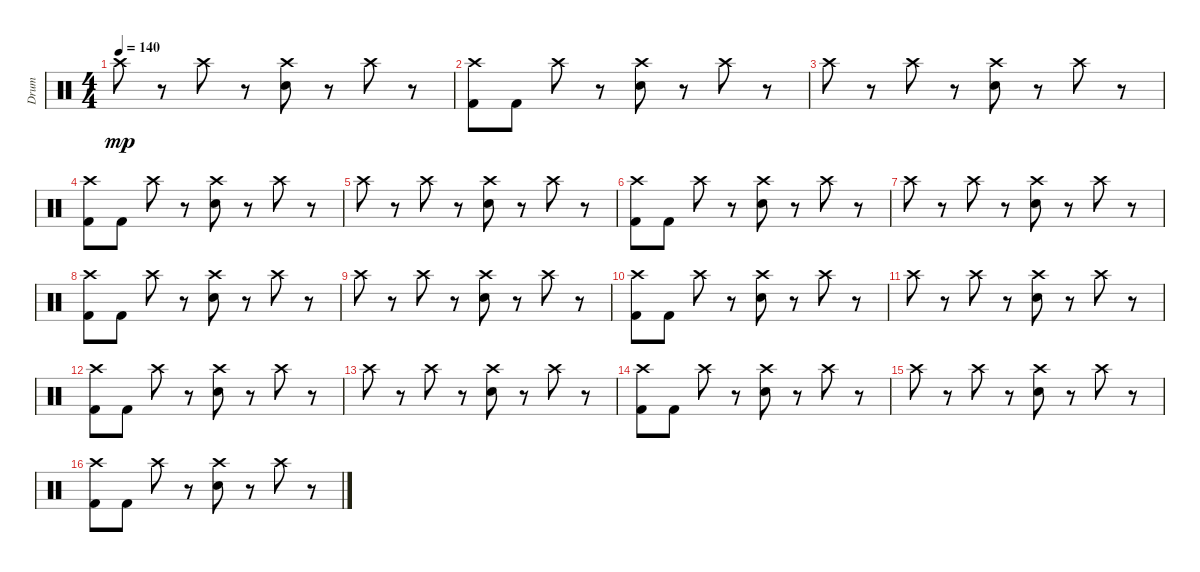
\track ("Drum" "Drum") {instrument percussion}
\staff {score}
\articulation defaults
\ts (4 4)
\tempo 140
\clef neutral
\ks c "Crash high (hit)".8{dy mp}
r.8 "Crash high (hit)".8 r.8 ("Crash high (hit)" "Electric Snare (hit)").8 r.8 "Crash high (hit)".8 r.8 |
("Crash high (hit)" "Kick (hit) 2").8 "Kick (hit) 2".8 "Crash high (hit)".8 r.8 ("Crash high (hit)" "Electric Snare (hit)").8 r.8 "Crash high (hit)".8 r.8 |
"Crash high (hit)".8 r.8 "Crash high (hit)".8 r.8 ("Crash high (hit)" "Electric Snare (hit)").8 r.8 "Crash high (hit)".8 r.8 |
("Crash high (hit)" "Kick (hit) 2").8 "Kick (hit) 2".8 "Crash high (hit)".8 r.8 ("Crash high (hit)" "Electric Snare (hit)").8 r.8 "Crash high (hit)".8 r.8 |
"Crash high (hit)".8 r.8 "Crash high (hit)".8 r.8 ("Crash high (hit)" "Electric Snare (hit)").8 r.8 "Crash high (hit)".8 r.8 |
("Crash high (hit)" "Kick (hit) 2").8 "Kick (hit) 2".8 "Crash high (hit)".8 r.8 ("Crash high (hit)" "Electric Snare (hit)").8 r.8 "Crash high (hit)".8 r.8 |
"Crash high (hit)".8 r.8 "Crash high (hit)".8 r.8 ("Crash high (hit)" "Electric Snare (hit)").8 r.8 "Crash high (hit)".8 r.8 |
("Crash high (hit)" "Kick (hit) 2").8 "Kick (hit) 2".8 "Crash high (hit)".8 r.8 ("Crash high (hit)" "Electric Snare (hit)").8 r.8 "Crash high (hit)".8 r.8 |
"Crash high (hit)".8 r.8 "Crash high (hit)".8 r.8 ("Crash high (hit)" "Electric Snare (hit)").8 r.8 "Crash high (hit)".8 r.8 |
("Crash high (hit)" "Kick (hit) 2").8 "Kick (hit) 2".8 "Crash high (hit)".8 r.8 ("Crash high (hit)" "Electric Snare (hit)").8 r.8 "Crash high (hit)".8 r.8 |
"Crash high (hit)".8 r.8 "Crash high (hit)".8 r.8 ("Crash high (hit)" "Electric Snare (hit)").8 r.8 "Crash high (hit)".8 r.8 |
("Crash high (hit)" "Kick (hit) 2").8 "Kick (hit) 2".8 "Crash high (hit)".8 r.8 ("Crash high (hit)" "Electric Snare (hit)").8 r.8 "Crash high (hit)".8 r.8 |
"Crash high (hit)".8 r.8 "Crash high (hit)".8 r.8 ("Crash high (hit)" "Electric Snare (hit)").8 r.8 "Crash high (hit)".8 r.8 |
("Crash high (hit)" "Kick (hit) 2").8 "Kick (hit) 2".8 "Crash high (hit)".8 r.8 ("Crash high (hit)" "Electric Snare (hit)").8 r.8 "Crash high (hit)".8 r.8 |
"Crash high (hit)".8 r.8 "Crash high (hit)".8 r.8 ("Crash high (hit)" "Electric Snare (hit)").8 r.8 "Crash high (hit)".8 r.8 |
("Crash high (hit)" "Kick (hit) 2").8 "Kick (hit) 2".8 "Crash high (hit)".8 r.8 ("Crash high (hit)" "Electric Snare (hit)").8 r.8 "Crash high (hit)".8 r.8
